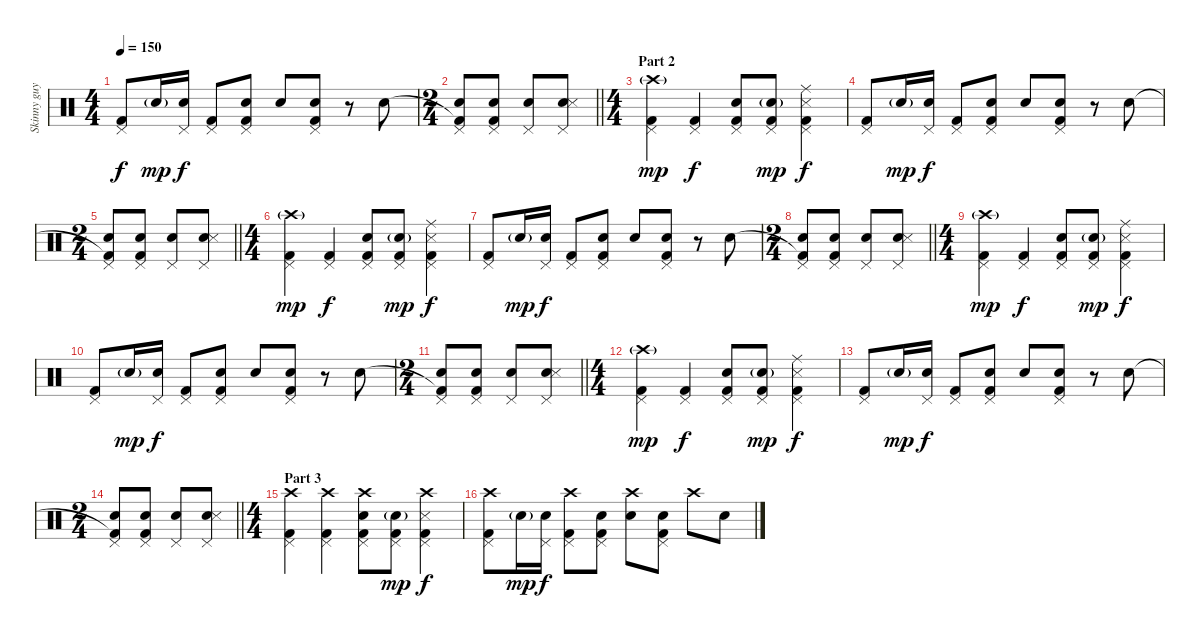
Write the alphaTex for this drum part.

\track ("Skinny guy" "Skinny guy") {instrument percussion}
\staff {score}
\articulation defaults
\ts (4 4)
\tempo 150
\clef neutral
\ks c
("Kick (hit) 2" "Pedal Hi-Hat (hit)").8{dy f} "Snare (hit) 2"{g}.16{dy mp} ("Pedal Hi-Hat (hit)" "Snare (hit) 2").16{dy f} ("Kick (hit) 2" "Pedal Hi-Hat (hit)").8 ("Kick (hit) 2" "Pedal Hi-Hat (hit)" "Snare (hit) 2").8 "Snare (hit) 2".8 ("Kick (hit) 2" "Pedal Hi-Hat (hit)" "Snare (hit) 2").8 r.8 "Snare (hit) 2".8 |
\ts (2 4)
\barLineRight lightlight
("Kick (hit) 2"{t} "Pedal Hi-Hat (hit)" "Snare (hit) 2").8 ("Kick (hit) 2" "Pedal Hi-Hat (hit)" "Snare (hit) 2").8 ("Pedal Hi-Hat (hit)" "Snare (hit) 2").8 ("Pedal Hi-Hat (hit)" "Snare (hit) 2" "Snare (side stick) 3").8 |
\ts (4 4)
\section ("" "Part 2")
("Kick (hit) 2" "Pedal Hi-Hat (hit)" "Crash high (hit)"{g}).4{dy mp} ("Kick (hit) 2" "Pedal Hi-Hat (hit)").4{dy f} ("Kick (hit) 2" "Pedal Hi-Hat (hit)" "Snare (hit) 2").8 ("Kick (hit) 2" "Pedal Hi-Hat (hit)" "Snare (hit) 2"{g}).8{dy mp} ("Kick (hit) 2" "Pedal Hi-Hat (hit)" "Snare (side stick) 3" "Ride (middle)").4{dy f} |
("Kick (hit) 2" "Pedal Hi-Hat (hit)").8 "Snare (hit) 2"{g}.16{dy mp} ("Pedal Hi-Hat (hit)" "Snare (hit) 2").16{dy f} ("Kick (hit) 2" "Pedal Hi-Hat (hit)").8 ("Kick (hit) 2" "Pedal Hi-Hat (hit)" "Snare (hit) 2").8 "Snare (hit) 2".8 ("Kick (hit) 2" "Pedal Hi-Hat (hit)" "Snare (hit) 2").8 r.8 "Snare (hit) 2".8 |
\ts (2 4)
\barLineRight lightlight
("Kick (hit) 2"{t} "Pedal Hi-Hat (hit)" "Snare (hit) 2").8 ("Kick (hit) 2" "Pedal Hi-Hat (hit)" "Snare (hit) 2").8 ("Pedal Hi-Hat (hit)" "Snare (hit) 2").8 ("Pedal Hi-Hat (hit)" "Snare (hit) 2" "Snare (side stick) 3").8 |
\ts (4 4)
("Kick (hit) 2" "Pedal Hi-Hat (hit)" "Crash high (hit)"{g}).4{dy mp} ("Kick (hit) 2" "Pedal Hi-Hat (hit)").4{dy f} ("Kick (hit) 2" "Pedal Hi-Hat (hit)" "Snare (hit) 2").8 ("Kick (hit) 2" "Pedal Hi-Hat (hit)" "Snare (hit) 2"{g}).8{dy mp} ("Kick (hit) 2" "Pedal Hi-Hat (hit)" "Snare (side stick) 3" "Ride (middle)").4{dy f} |
("Kick (hit) 2" "Pedal Hi-Hat (hit)").8 "Snare (hit) 2"{g}.16{dy mp} ("Pedal Hi-Hat (hit)" "Snare (hit) 2").16{dy f} ("Kick (hit) 2" "Pedal Hi-Hat (hit)").8 ("Kick (hit) 2" "Pedal Hi-Hat (hit)" "Snare (hit) 2").8 "Snare (hit) 2".8 ("Kick (hit) 2" "Pedal Hi-Hat (hit)" "Snare (hit) 2").8 r.8 "Snare (hit) 2".8 |
\ts (2 4)
\barLineRight lightlight
("Kick (hit) 2"{t} "Pedal Hi-Hat (hit)" "Snare (hit) 2").8 ("Kick (hit) 2" "Pedal Hi-Hat (hit)" "Snare (hit) 2").8 ("Pedal Hi-Hat (hit)" "Snare (hit) 2").8 ("Pedal Hi-Hat (hit)" "Snare (hit) 2" "Snare (side stick) 3").8 |
\ts (4 4)
("Kick (hit) 2" "Pedal Hi-Hat (hit)" "Crash high (hit)"{g}).4{dy mp} ("Kick (hit) 2" "Pedal Hi-Hat (hit)").4{dy f} ("Kick (hit) 2" "Pedal Hi-Hat (hit)" "Snare (hit) 2").8 ("Kick (hit) 2" "Pedal Hi-Hat (hit)" "Snare (hit) 2"{g}).8{dy mp} ("Kick (hit) 2" "Pedal Hi-Hat (hit)" "Snare (side stick) 3" "Ride (middle)").4{dy f} |
("Kick (hit) 2" "Pedal Hi-Hat (hit)").8 "Snare (hit) 2"{g}.16{dy mp} ("Pedal Hi-Hat (hit)" "Snare (hit) 2").16{dy f} ("Kick (hit) 2" "Pedal Hi-Hat (hit)").8 ("Kick (hit) 2" "Pedal Hi-Hat (hit)" "Snare (hit) 2").8 "Snare (hit) 2".8 ("Kick (hit) 2" "Pedal Hi-Hat (hit)" "Snare (hit) 2").8 r.8 "Snare (hit) 2".8 |
\ts (2 4)
\barLineRight lightlight
("Kick (hit) 2"{t} "Pedal Hi-Hat (hit)" "Snare (hit) 2").8 ("Kick (hit) 2" "Pedal Hi-Hat (hit)" "Snare (hit) 2").8 ("Pedal Hi-Hat (hit)" "Snare (hit) 2").8 ("Pedal Hi-Hat (hit)" "Snare (hit) 2" "Snare (side stick) 3").8 |
\ts (4 4)
("Kick (hit) 2" "Pedal Hi-Hat (hit)" "Crash high (hit)"{g}).4{dy mp} ("Kick (hit) 2" "Pedal Hi-Hat (hit)").4{dy f} ("Kick (hit) 2" "Pedal Hi-Hat (hit)" "Snare (hit) 2").8 ("Kick (hit) 2" "Pedal Hi-Hat (hit)" "Snare (hit) 2"{g}).8{dy mp} ("Kick (hit) 2" "Pedal Hi-Hat (hit)" "Snare (side stick) 3" "Ride (middle)").4{dy f} |
("Kick (hit) 2" "Pedal Hi-Hat (hit)").8 "Snare (hit) 2"{g}.16{dy mp} ("Pedal Hi-Hat (hit)" "Snare (hit) 2").16{dy f} ("Kick (hit) 2" "Pedal Hi-Hat (hit)").8 ("Kick (hit) 2" "Pedal Hi-Hat (hit)" "Snare (hit) 2").8 "Snare (hit) 2".8 ("Kick (hit) 2" "Pedal Hi-Hat (hit)" "Snare (hit) 2").8 r.8 "Snare (hit) 2".8 |
\ts (2 4)
\barLineRight lightlight
("Kick (hit) 2"{t} "Pedal Hi-Hat (hit)" "Snare (hit) 2").8 ("Kick (hit) 2" "Pedal Hi-Hat (hit)" "Snare (hit) 2").8 ("Pedal Hi-Hat (hit)" "Snare (hit) 2").8 ("Pedal Hi-Hat (hit)" "Snare (hit) 2" "Snare (side stick) 3").8 |
\ts (4 4)
\section ("" "Part 3")
("Kick (hit) 2" "Pedal Hi-Hat (hit)" "Crash high (hit)").4 ("Kick (hit) 2" "Pedal Hi-Hat (hit)" "Crash high (hit)").4 ("Kick (hit) 2" "Pedal Hi-Hat (hit)" "Snare (hit) 2" "Crash high (hit)").8 ("Kick (hit) 2" "Pedal Hi-Hat (hit)" "Snare (hit) 2"{g}).8{dy mp} ("Kick (hit) 2" "Pedal Hi-Hat (hit)" "Snare (side stick) 3" "Crash high (hit)").4{dy f} |
("Kick (hit) 2" "Pedal Hi-Hat (hit)" "Crash high (hit)").8 "Snare (hit) 2"{g}.16{dy mp} ("Pedal Hi-Hat (hit)" "Snare (hit) 2").16{dy f} ("Kick (hit) 2" "Pedal Hi-Hat (hit)" "Crash high (hit)").8 ("Kick (hit) 2" "Pedal Hi-Hat (hit)" "Snare (hit) 2").8 ("Snare (hit) 2" "Crash high (hit)").8 ("Kick (hit) 2" "Pedal Hi-Hat (hit)" "Snare (hit) 2").8 "Crash high (hit)".8 "Snare (hit) 2".8
